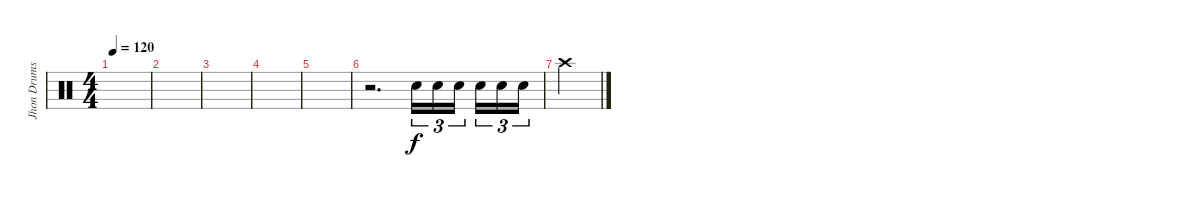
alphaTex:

\track ("Jhon Drums" "Jhon Drums") {instrument percussion}
\staff {score}
\articulation defaults
\ts (4 4)
\tempo 120
\clef neutral
\ks c
|
|
|
|
|
r.2{d} "Electric Snare (hit)".16{tu (3 2)} "Electric Snare (hit)".16{tu (3 2)} "Electric Snare (hit)".16{tu (3 2)} "Electric Snare (hit)".16{tu (3 2)} "Electric Snare (hit)".16{tu (3 2)} "Electric Snare (hit)".16{tu (3 2)} |
"Crash high (hit)".4
